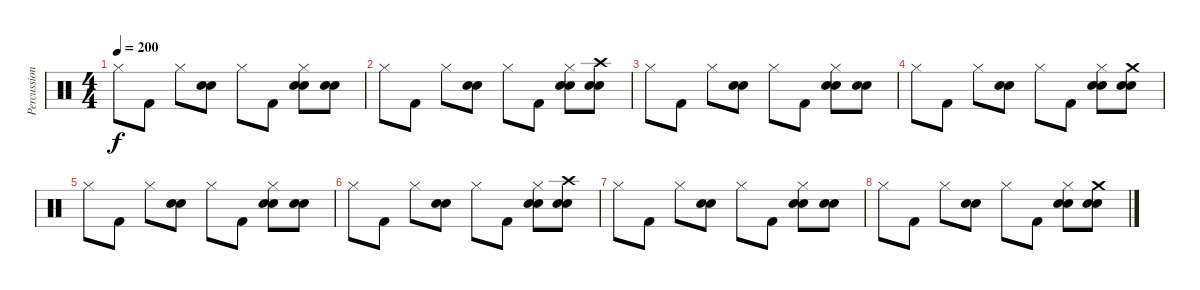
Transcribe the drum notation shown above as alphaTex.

\track ("Percussions" "Percussion") {instrument percussion}
\staff {score}
\articulation defaults
\ts (4 4)
\tempo 200
\clef neutral
\ks c "Hi-Hat (closed)".8{dy f} "Kick (hit) 2".8 "Hi-Hat (closed)".8
("Snare (hit) 2" "Electric Snare (hit)").8 "Hi-Hat (closed)".8 "Kick (hit) 2".8 ("Hi-Hat (closed)" "Snare (hit) 2" "Electric Snare (hit)").8 ("Snare (hit) 2" "Electric Snare (hit)").8 |
"Hi-Hat (closed)".8 "Kick (hit) 2".8 "Hi-Hat (closed)".8 ("Snare (hit) 2" "Electric Snare (hit)").8 "Hi-Hat (closed)".8 "Kick (hit) 2".8 ("Hi-Hat (closed)" "Snare (hit) 2" "Electric Snare (hit)").8 ("Crash high (hit)" "Snare (hit) 2" "Electric Snare (hit)").8 |
"Hi-Hat (closed)".8 "Kick (hit) 2".8 "Hi-Hat (closed)".8 ("Snare (hit) 2" "Electric Snare (hit)").8 "Hi-Hat (closed)".8 "Kick (hit) 2".8 ("Hi-Hat (closed)" "Snare (hit) 2" "Electric Snare (hit)").8 ("Snare (hit) 2" "Electric Snare (hit)").8 |
"Hi-Hat (closed)".8 "Kick (hit) 2".8 "Hi-Hat (closed)".8 ("Snare (hit) 2" "Electric Snare (hit)").8 "Hi-Hat (closed)".8 "Kick (hit) 2".8 ("Hi-Hat (closed)" "Snare (hit) 2" "Electric Snare (hit)").8 ("Crash medium (hit)" "Snare (hit) 2" "Electric Snare (hit)").8 |
"Hi-Hat (closed)".8 "Kick (hit) 2".8 "Hi-Hat (closed)".8 ("Snare (hit) 2" "Electric Snare (hit)").8 "Hi-Hat (closed)".8 "Kick (hit) 2".8 ("Hi-Hat (closed)" "Snare (hit) 2" "Electric Snare (hit)").8 ("Snare (hit) 2" "Electric Snare (hit)").8 |
"Hi-Hat (closed)".8 "Kick (hit) 2".8 "Hi-Hat (closed)".8 ("Snare (hit) 2" "Electric Snare (hit)").8 "Hi-Hat (closed)".8 "Kick (hit) 2".8 ("Hi-Hat (closed)" "Snare (hit) 2" "Electric Snare (hit)").8 ("Crash high (hit)" "Snare (hit) 2" "Electric Snare (hit)").8 |
"Hi-Hat (closed)".8 "Kick (hit) 2".8 "Hi-Hat (closed)".8 ("Snare (hit) 2" "Electric Snare (hit)").8 "Hi-Hat (closed)".8 "Kick (hit) 2".8 ("Hi-Hat (closed)" "Snare (hit) 2" "Electric Snare (hit)").8 ("Snare (hit) 2" "Electric Snare (hit)").8 |
"Hi-Hat (closed)".8 "Kick (hit) 2".8 "Hi-Hat (closed)".8 ("Snare (hit) 2" "Electric Snare (hit)").8 "Hi-Hat (closed)".8 "Kick (hit) 2".8 ("Hi-Hat (closed)" "Snare (hit) 2" "Electric Snare (hit)").8 ("Crash medium (hit)" "Snare (hit) 2" "Electric Snare (hit)").8
